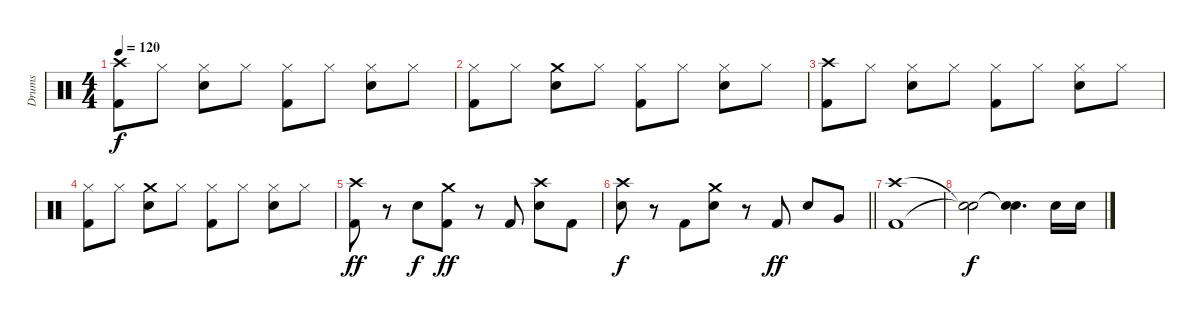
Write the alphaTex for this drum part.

\track ("Drums" "Drums") {instrument percussion}
\staff {score}
\articulation defaults
\ts (4 4)
\tempo 120
\clef neutral
\ks c
("Crash high (hit)" "Kick (hit) 2").8{dy f} "Hi-Hat (closed)".8 ("Hi-Hat (closed)" "Snare (hit) 2").8 "Hi-Hat (closed)".8 ("Hi-Hat (closed)" "Kick (hit) 2").8 "Hi-Hat (closed)".8 ("Hi-Hat (closed)" "Snare (hit) 2").8 "Hi-Hat (closed)".8 |
("Hi-Hat (closed)" "Kick (hit) 2").8 "Hi-Hat (closed)".8 ("Crash medium (hit)" "Snare (hit) 2").8 "Hi-Hat (closed)".8 ("Hi-Hat (closed)" "Kick (hit) 2").8 "Hi-Hat (closed)".8 ("Hi-Hat (closed)" "Snare (hit) 2").8 "Hi-Hat (closed)".8 |
("Crash high (hit)" "Kick (hit) 2").8 "Hi-Hat (closed)".8 ("Hi-Hat (closed)" "Snare (hit) 2").8 "Hi-Hat (closed)".8 ("Hi-Hat (closed)" "Kick (hit) 2").8 "Hi-Hat (closed)".8 ("Hi-Hat (closed)" "Snare (hit) 2").8 "Hi-Hat (closed)".8 |
("Hi-Hat (closed)" "Kick (hit) 2").8 "Hi-Hat (closed)".8 ("Crash medium (hit)" "Snare (hit) 2").8 "Hi-Hat (closed)".8 ("Hi-Hat (closed)" "Kick (hit) 2").8 "Hi-Hat (closed)".8 ("Hi-Hat (closed)" "Snare (hit) 2").8 "Hi-Hat (closed)".8 |
("Crash high (hit)" "Kick (hit) 2").8{dy ff} r.8 "Snare (hit) 2".8{dy f} ("Crash medium (hit)" "Kick (hit) 2").8{dy ff} r.8 "Kick (hit) 2".8 ("Crash high (hit)" "Snare (hit) 2").8 "Kick (hit) 2".8 |
\barLineRight lightlight
("Crash high (hit)" "Snare (hit) 2").8{dy f} r.8 "Kick (hit) 2".8 ("Crash medium (hit)" "Snare (hit) 2").8 r.8 "Kick (hit) 2".8{dy ff} "Snare (hit) 2".8 "Very Low Tom (hit)".8 |
("Crash high (hit)" "Kick (hit) 2").1 |
("Snare (hit)"{t} "Snare (hit)"{t}).2{dy f} ("Snare (hit)"{t} "Snare (hit)"{t}).4{d} "Snare (hit) 2".16 "Snare (hit) 2".16
